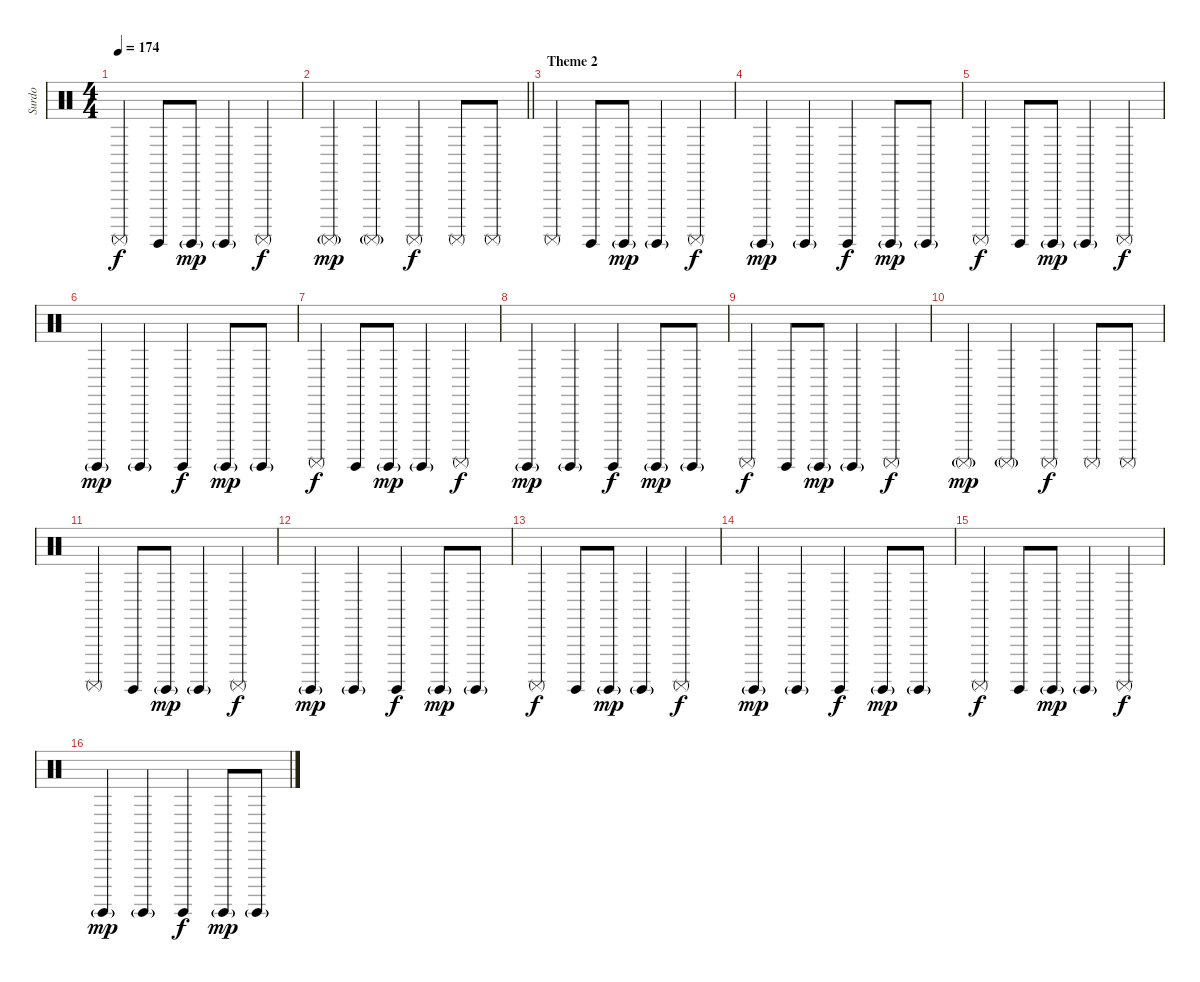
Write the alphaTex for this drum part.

\track ("Surdo" "Surdo") {instrument percussion}
\staff {score}
\articulation defaults
\ts (4 4)
\tempo 174
\clef neutral
\ks c "Surdo (mute)".4{dy f} "Surdo (hit)".8 "Surdo (hit)"{g}.8{dy mp} "Surdo (hit)"{g}.4 "Surdo (mute)".4{dy f}
|
\barLineRight lightlight "Surdo (mute)"{g}.4{dy mp} "Surdo (mute)"{g}.4 "Surdo (mute)".4{dy f} "Surdo (mute)".8 "Surdo (mute)".8
|
\section ("" "Theme 2")
"Surdo (mute)".4 "Surdo (hit)".8 "Surdo (hit)"{g}.8{dy mp} "Surdo (hit)"{g}.4 "Surdo (mute)".4{dy f} |
"Surdo (hit)"{g}.4{dy mp} "Surdo (hit)"{g}.4 "Surdo (hit)".4{dy f} "Surdo (hit)"{g}.8{dy mp} "Surdo (hit)"{g}.8 |
"Surdo (mute)".4{dy f} "Surdo (hit)".8 "Surdo (hit)"{g}.8{dy mp} "Surdo (hit)"{g}.4 "Surdo (mute)".4{dy f} |
"Surdo (hit)"{g}.4{dy mp} "Surdo (hit)"{g}.4 "Surdo (hit)".4{dy f} "Surdo (hit)"{g}.8{dy mp} "Surdo (hit)"{g}.8 |
"Surdo (mute)".4{dy f} "Surdo (hit)".8 "Surdo (hit)"{g}.8{dy mp} "Surdo (hit)"{g}.4 "Surdo (mute)".4{dy f} |
"Surdo (hit)"{g}.4{dy mp} "Surdo (hit)"{g}.4 "Surdo (hit)".4{dy f} "Surdo (hit)"{g}.8{dy mp} "Surdo (hit)"{g}.8 |
"Surdo (mute)".4{dy f} "Surdo (hit)".8 "Surdo (hit)"{g}.8{dy mp} "Surdo (hit)"{g}.4 "Surdo (mute)".4{dy f} |
"Surdo (mute)"{g}.4{dy mp} "Surdo (mute)"{g}.4 "Surdo (mute)".4{dy f} "Surdo (mute)".8 "Surdo (mute)".8 |
"Surdo (mute)".4 "Surdo (hit)".8 "Surdo (hit)"{g}.8{dy mp} "Surdo (hit)"{g}.4 "Surdo (mute)".4{dy f} |
"Surdo (hit)"{g}.4{dy mp} "Surdo (hit)"{g}.4 "Surdo (hit)".4{dy f} "Surdo (hit)"{g}.8{dy mp} "Surdo (hit)"{g}.8 |
"Surdo (mute)".4{dy f} "Surdo (hit)".8 "Surdo (hit)"{g}.8{dy mp} "Surdo (hit)"{g}.4 "Surdo (mute)".4{dy f} |
"Surdo (hit)"{g}.4{dy mp} "Surdo (hit)"{g}.4 "Surdo (hit)".4{dy f} "Surdo (hit)"{g}.8{dy mp} "Surdo (hit)"{g}.8 |
"Surdo (mute)".4{dy f} "Surdo (hit)".8 "Surdo (hit)"{g}.8{dy mp} "Surdo (hit)"{g}.4 "Surdo (mute)".4{dy f} |
"Surdo (hit)"{g}.4{dy mp} "Surdo (hit)"{g}.4 "Surdo (hit)".4{dy f} "Surdo (hit)"{g}.8{dy mp} "Surdo (hit)"{g}.8
